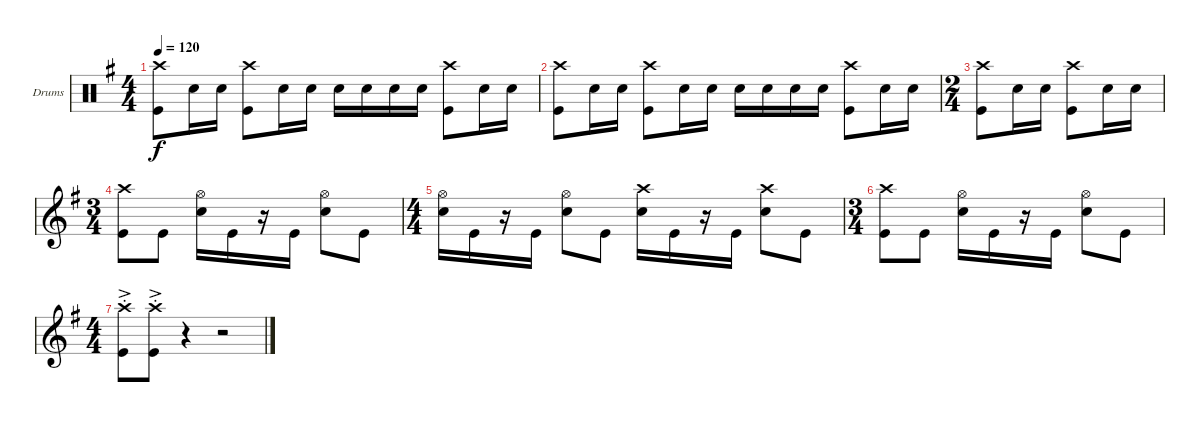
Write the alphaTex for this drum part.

\defaultSystemsLayout 4
\bracketExtendMode groupsimilarinstruments
\firstSystemTrackNameOrientation horizontal
\otherSystemsTrackNameOrientation horizontal
\track ("Drums" "Drums") {instrument percussion}
\staff {score}
\articulation defaults
\ts (4 4)
\tempo 120
\clef neutral
\ks g
("Kick (hit)" "Crash high (hit)").8{dy f} "Snare (hit) 2".16 "Snare (hit) 2".16 ("Kick (hit)" "Crash high (hit)").8 "Snare (hit) 2".16 "Snare (hit) 2".16 "Snare (hit) 2".16 "Snare (hit) 2".16 "Snare (hit) 2".16 "Snare (hit) 2".16 ("Kick (hit)" "Crash high (hit)").8 "Snare (hit) 2".16 "Snare (hit) 2".16 |
("Kick (hit)" "Crash high (hit)").8 "Snare (hit) 2".16 "Snare (hit) 2".16 ("Kick (hit)" "Crash high (hit)").8 "Snare (hit) 2".16 "Snare (hit) 2".16 "Snare (hit) 2".16 "Snare (hit) 2".16 "Snare (hit) 2".16 "Snare (hit) 2".16 ("Kick (hit)" "Crash high (hit)").8 "Snare (hit) 2".16 "Snare (hit) 2".16 |
\ts (2 4)
("Kick (hit)" "Crash high (hit)").8 "Snare (hit) 2".16 "Snare (hit) 2".16 ("Kick (hit)" "Crash high (hit)").8 "Snare (hit) 2".16 "Snare (hit) 2".16 |
\ts (3 4)
\clef g2
("Kick (hit)" "Crash high (hit)").8 "Kick (hit)".8 ("Snare (hit) 2" "Hi-Hat (open)").16 "Kick (hit)".16 r.16 "Kick (hit)".16 ("Snare (hit) 2" "Hi-Hat (open)").8 "Kick (hit)".8 |
\ts (4 4)
("Snare (hit) 2" "Hi-Hat (open)").16 "Kick (hit)".16 r.16 "Kick (hit)".16 ("Snare (hit) 2" "Hi-Hat (open)").8 "Kick (hit)".8 ("Snare (hit) 2" "Crash high (hit)").16 "Kick (hit)".16 r.16 "Kick (hit)".16 ("Snare (hit) 2" "Crash high (hit)").8 "Kick (hit)".8 |
\ts (3 4)
("Kick (hit)" "Crash high (hit)").8 "Kick (hit)".8 ("Snare (hit) 2" "Hi-Hat (open)").16 "Kick (hit)".16 r.16 "Kick (hit)".16 ("Snare (hit) 2" "Hi-Hat (open)").8 "Kick (hit)".8 |
\ts (4 4)
("Kick (hit)"{ac st} "Crash high (hit)"{ac st}).8 ("Kick (hit)"{ac st} "Crash high (hit)"{ac st}).8 r.4 r.2
